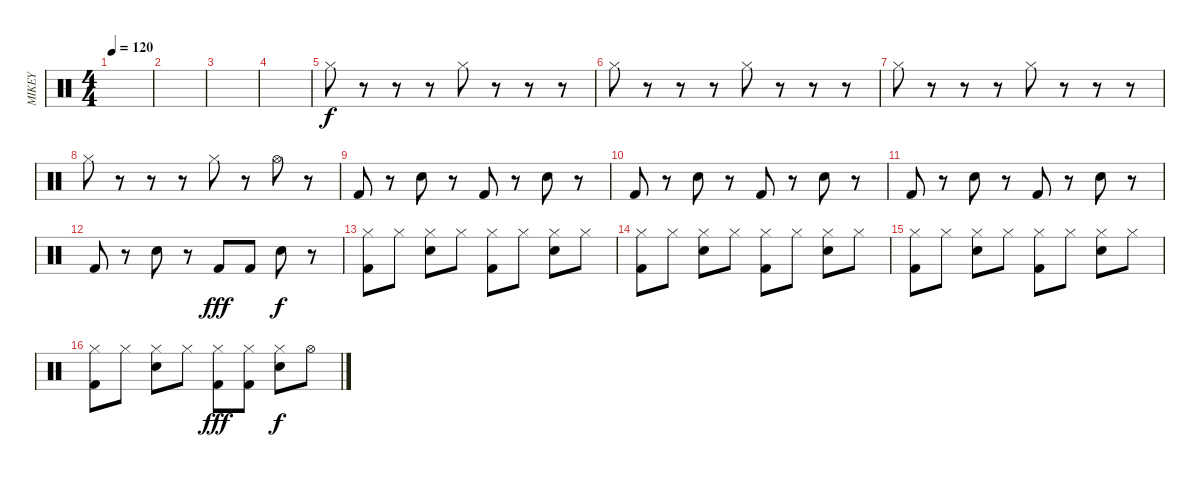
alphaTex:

\track ("MIKEY" "MIKEY") {instrument percussion}
\staff {score}
\articulation defaults
\ts (4 4)
\tempo 120
\clef neutral
\ks c
|
|
|
|
"Hi-Hat (closed)".8 r.8 r.8 r.8 "Hi-Hat (closed)".8 r.8 r.8 r.8 |
"Hi-Hat (closed)".8 r.8 r.8 r.8 "Hi-Hat (closed)".8 r.8 r.8 r.8 |
"Hi-Hat (closed)".8 r.8 r.8 r.8 "Hi-Hat (closed)".8 r.8 r.8 r.8 |
"Hi-Hat (closed)".8 r.8 r.8 r.8 "Hi-Hat (closed)".8 r.8 "Hi-Hat (open)".8 r.8 |
"Kick (hit) 2".8 r.8 "Snare (hit) 2".8 r.8 "Kick (hit) 2".8 r.8 "Snare (hit) 2".8 r.8 |
"Kick (hit) 2".8 r.8 "Snare (hit) 2".8 r.8 "Kick (hit) 2".8 r.8 "Snare (hit) 2".8 r.8 |
"Kick (hit) 2".8 r.8 "Snare (hit) 2".8 r.8 "Kick (hit) 2".8 r.8 "Snare (hit) 2".8 r.8 |
"Kick (hit) 2".8 r.8 "Snare (hit) 2".8 r.8 "Kick (hit) 2".8{dy fff} "Kick (hit) 2".8 "Snare (hit) 2".8{dy f} r.8 |
("Hi-Hat (closed)" "Kick (hit) 2").8 "Hi-Hat (closed)".8 ("Hi-Hat (closed)" "Snare (hit) 2").8 "Hi-Hat (closed)".8 ("Hi-Hat (closed)" "Kick (hit) 2").8 "Hi-Hat (closed)".8 ("Hi-Hat (closed)" "Snare (hit) 2").8 "Hi-Hat (closed)".8 |
("Hi-Hat (closed)" "Kick (hit) 2").8 "Hi-Hat (closed)".8 ("Hi-Hat (closed)" "Snare (hit) 2").8 "Hi-Hat (closed)".8 ("Hi-Hat (closed)" "Kick (hit) 2").8 "Hi-Hat (closed)".8 ("Hi-Hat (closed)" "Snare (hit) 2").8 "Hi-Hat (closed)".8 |
("Hi-Hat (closed)" "Kick (hit) 2").8 "Hi-Hat (closed)".8 ("Hi-Hat (closed)" "Snare (hit) 2").8 "Hi-Hat (closed)".8 ("Hi-Hat (closed)" "Kick (hit) 2").8 "Hi-Hat (closed)".8 ("Hi-Hat (closed)" "Snare (hit) 2").8 "Hi-Hat (closed)".8 |
("Hi-Hat (closed)" "Kick (hit) 2").8 "Hi-Hat (closed)".8 ("Hi-Hat (closed)" "Snare (hit) 2").8 "Hi-Hat (closed)".8 ("Hi-Hat (closed)" "Kick (hit) 2").8{dy fff} ("Hi-Hat (closed)" "Kick (hit) 2").8 ("Hi-Hat (closed)" "Snare (hit) 2").8{dy f} "Hi-Hat (open)".8
